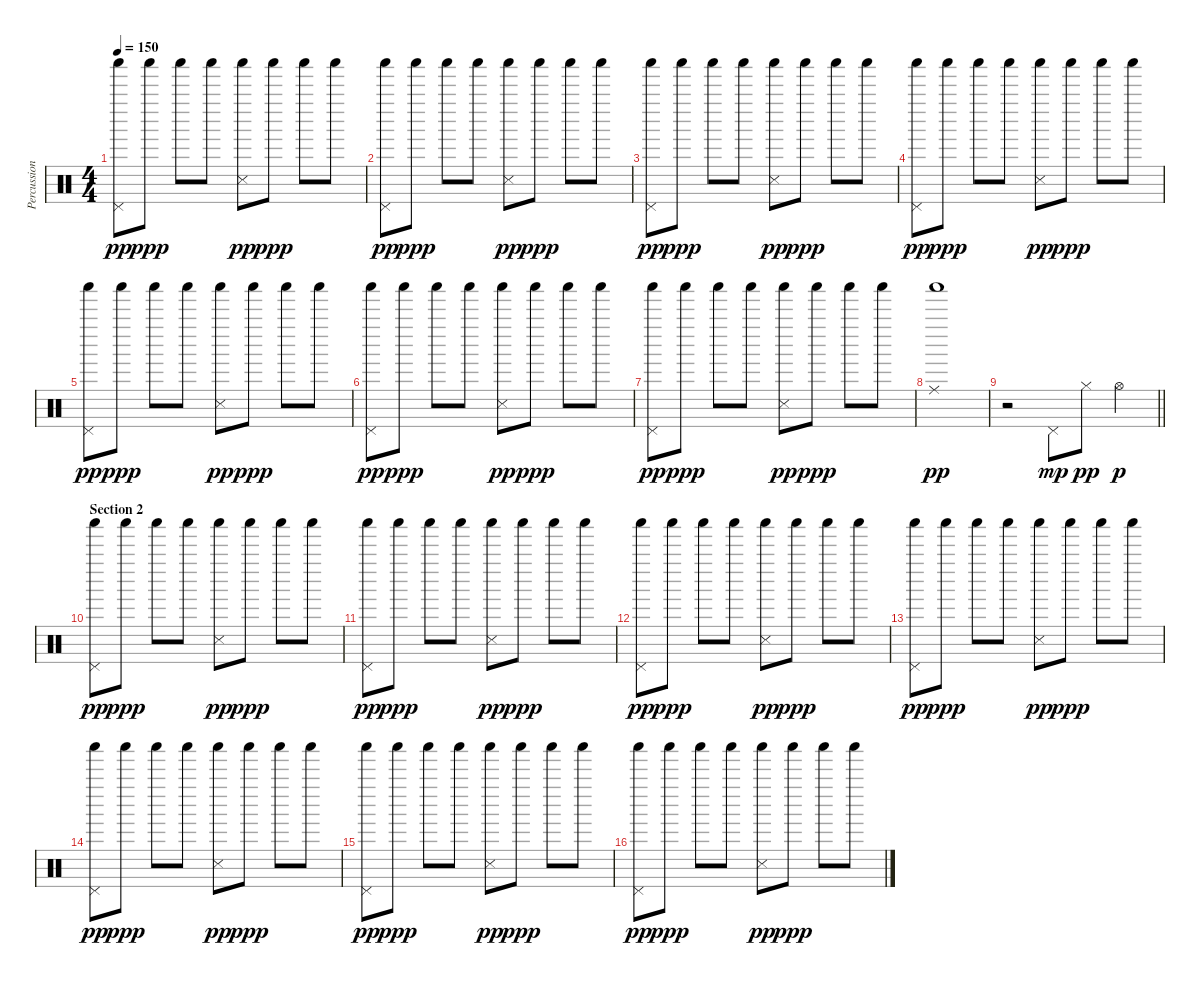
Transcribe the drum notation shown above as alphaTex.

\track ("Percussion" "Percussion") {instrument percussion}
\staff {score}
\articulation defaults
\ts (4 4)
\tempo 150
\clef neutral
\ks c
("Pedal Hi-Hat (hit)" "Shaker (hit)").8{dy pp} "Shaker (hit)".8{dy ppp} "Shaker (hit)".8 "Shaker (hit)".8 ("Snare (side stick) 3" "Shaker (hit)").8{dy pp} "Shaker (hit)".8{dy ppp} "Shaker (hit)".8 "Shaker (hit)".8 |
("Pedal Hi-Hat (hit)" "Shaker (hit)").8{dy pp} "Shaker (hit)".8{dy ppp} "Shaker (hit)".8 "Shaker (hit)".8 ("Snare (side stick) 3" "Shaker (hit)").8{dy pp} "Shaker (hit)".8{dy ppp} "Shaker (hit)".8 "Shaker (hit)".8 |
("Pedal Hi-Hat (hit)" "Shaker (hit)").8{dy pp} "Shaker (hit)".8{dy ppp} "Shaker (hit)".8 "Shaker (hit)".8 ("Snare (side stick) 3" "Shaker (hit)").8{dy pp} "Shaker (hit)".8{dy ppp} "Shaker (hit)".8 "Shaker (hit)".8 |
("Pedal Hi-Hat (hit)" "Shaker (hit)").8{dy pp} "Shaker (hit)".8{dy ppp} "Shaker (hit)".8 "Shaker (hit)".8 ("Snare (side stick) 3" "Shaker (hit)").8{dy pp} "Shaker (hit)".8{dy ppp} "Shaker (hit)".8 "Shaker (hit)".8 |
("Pedal Hi-Hat (hit)" "Shaker (hit)").8{dy pp} "Shaker (hit)".8{dy ppp} "Shaker (hit)".8 "Shaker (hit)".8 ("Snare (side stick) 3" "Shaker (hit)").8{dy pp} "Shaker (hit)".8{dy ppp} "Shaker (hit)".8 "Shaker (hit)".8 |
("Pedal Hi-Hat (hit)" "Shaker (hit)").8{dy pp} "Shaker (hit)".8{dy ppp} "Shaker (hit)".8 "Shaker (hit)".8 ("Snare (side stick) 3" "Shaker (hit)").8{dy pp} "Shaker (hit)".8{dy ppp} "Shaker (hit)".8 "Shaker (hit)".8 |
("Pedal Hi-Hat (hit)" "Shaker (hit)").8{dy pp} "Shaker (hit)".8{dy ppp} "Shaker (hit)".8 "Shaker (hit)".8 ("Snare (side stick) 3" "Shaker (hit)").8{dy pp} "Shaker (hit)".8{dy ppp} "Shaker (hit)".8 "Shaker (hit)".8 |
("Ride (middle)" "Shaker (hit)").1{dy pp} |
\barLineRight lightlight
r.2 "Pedal Hi-Hat (hit)".8{dy mp} "Hi-Hat (closed)".8{dy pp} "Hi-Hat (open)".4{dy p} |
\section ("" "Section 2")
("Pedal Hi-Hat (hit)" "Shaker (hit)").8{dy pp} "Shaker (hit)".8{dy ppp} "Shaker (hit)".8 "Shaker (hit)".8 ("Snare (side stick) 3" "Shaker (hit)").8{dy pp} "Shaker (hit)".8{dy ppp} "Shaker (hit)".8 "Shaker (hit)".8 |
("Pedal Hi-Hat (hit)" "Shaker (hit)").8{dy pp} "Shaker (hit)".8{dy ppp} "Shaker (hit)".8 "Shaker (hit)".8 ("Snare (side stick) 3" "Shaker (hit)").8{dy pp} "Shaker (hit)".8{dy ppp} "Shaker (hit)".8 "Shaker (hit)".8 |
("Pedal Hi-Hat (hit)" "Shaker (hit)").8{dy pp} "Shaker (hit)".8{dy ppp} "Shaker (hit)".8 "Shaker (hit)".8 ("Snare (side stick) 3" "Shaker (hit)").8{dy pp} "Shaker (hit)".8{dy ppp} "Shaker (hit)".8 "Shaker (hit)".8 |
("Pedal Hi-Hat (hit)" "Shaker (hit)").8{dy pp} "Shaker (hit)".8{dy ppp} "Shaker (hit)".8 "Shaker (hit)".8 ("Snare (side stick) 3" "Shaker (hit)").8{dy pp} "Shaker (hit)".8{dy ppp} "Shaker (hit)".8 "Shaker (hit)".8 |
("Pedal Hi-Hat (hit)" "Shaker (hit)").8{dy pp} "Shaker (hit)".8{dy ppp} "Shaker (hit)".8 "Shaker (hit)".8 ("Snare (side stick) 3" "Shaker (hit)").8{dy pp} "Shaker (hit)".8{dy ppp} "Shaker (hit)".8 "Shaker (hit)".8 |
("Pedal Hi-Hat (hit)" "Shaker (hit)").8{dy pp} "Shaker (hit)".8{dy ppp} "Shaker (hit)".8 "Shaker (hit)".8 ("Snare (side stick) 3" "Shaker (hit)").8{dy pp} "Shaker (hit)".8{dy ppp} "Shaker (hit)".8 "Shaker (hit)".8 |
("Pedal Hi-Hat (hit)" "Shaker (hit)").8{dy pp} "Shaker (hit)".8{dy ppp} "Shaker (hit)".8 "Shaker (hit)".8 ("Snare (side stick) 3" "Shaker (hit)").8{dy pp} "Shaker (hit)".8{dy ppp} "Shaker (hit)".8 "Shaker (hit)".8
